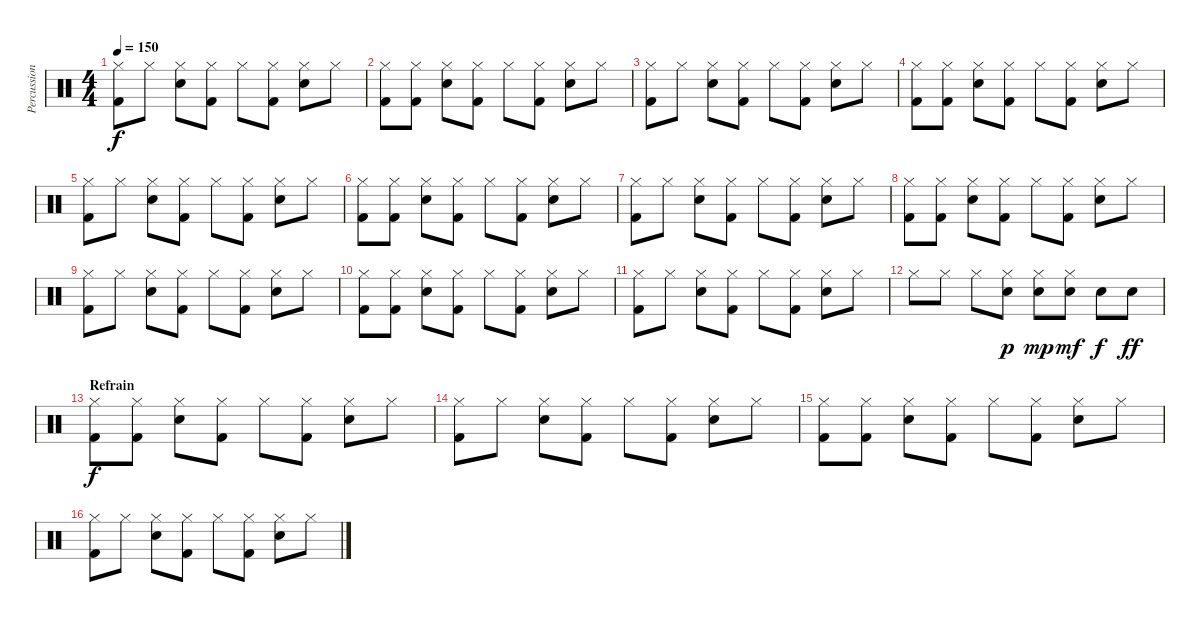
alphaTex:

\track ("Percussion" "Percussion") {instrument percussion}
\staff {score}
\articulation defaults
\ts (4 4)
\tempo 150
\clef neutral
\ks c
("Hi-Hat (closed)" "Kick (hit) 2").8{dy f} "Hi-Hat (closed)".8 ("Hi-Hat (closed)" "Electric Snare (hit)").8 ("Hi-Hat (closed)" "Kick (hit) 2").8 "Hi-Hat (closed)".8 ("Hi-Hat (closed)" "Kick (hit) 2").8 ("Hi-Hat (closed)" "Electric Snare (hit)").8 "Hi-Hat (closed)".8 |
("Hi-Hat (closed)" "Kick (hit) 2").8 ("Hi-Hat (closed)" "Kick (hit) 2").8 ("Hi-Hat (closed)" "Electric Snare (hit)").8 ("Hi-Hat (closed)" "Kick (hit) 2").8 "Hi-Hat (closed)".8 ("Hi-Hat (closed)" "Kick (hit) 2").8 ("Hi-Hat (closed)" "Electric Snare (hit)").8 "Hi-Hat (closed)".8 |
("Hi-Hat (closed)" "Kick (hit) 2").8 "Hi-Hat (closed)".8 ("Hi-Hat (closed)" "Electric Snare (hit)").8 ("Hi-Hat (closed)" "Kick (hit) 2").8 "Hi-Hat (closed)".8 ("Hi-Hat (closed)" "Kick (hit) 2").8 ("Hi-Hat (closed)" "Electric Snare (hit)").8 "Hi-Hat (closed)".8 |
("Hi-Hat (closed)" "Kick (hit) 2").8 ("Hi-Hat (closed)" "Kick (hit) 2").8 ("Hi-Hat (closed)" "Electric Snare (hit)").8 ("Hi-Hat (closed)" "Kick (hit) 2").8 "Hi-Hat (closed)".8 ("Hi-Hat (closed)" "Kick (hit) 2").8 ("Hi-Hat (closed)" "Electric Snare (hit)").8 "Hi-Hat (closed)".8 |
("Hi-Hat (closed)" "Kick (hit) 2").8 "Hi-Hat (closed)".8 ("Hi-Hat (closed)" "Electric Snare (hit)").8 ("Hi-Hat (closed)" "Kick (hit) 2").8 "Hi-Hat (closed)".8 ("Hi-Hat (closed)" "Kick (hit) 2").8 ("Hi-Hat (closed)" "Electric Snare (hit)").8 "Hi-Hat (closed)".8 |
("Hi-Hat (closed)" "Kick (hit) 2").8 ("Hi-Hat (closed)" "Kick (hit) 2").8 ("Hi-Hat (closed)" "Electric Snare (hit)").8 ("Hi-Hat (closed)" "Kick (hit) 2").8 "Hi-Hat (closed)".8 ("Hi-Hat (closed)" "Kick (hit) 2").8 ("Hi-Hat (closed)" "Electric Snare (hit)").8 "Hi-Hat (closed)".8 |
("Hi-Hat (closed)" "Kick (hit) 2").8 "Hi-Hat (closed)".8 ("Hi-Hat (closed)" "Electric Snare (hit)").8 ("Hi-Hat (closed)" "Kick (hit) 2").8 "Hi-Hat (closed)".8 ("Hi-Hat (closed)" "Kick (hit) 2").8 ("Hi-Hat (closed)" "Electric Snare (hit)").8 "Hi-Hat (closed)".8 |
("Hi-Hat (closed)" "Kick (hit) 2").8 ("Hi-Hat (closed)" "Kick (hit) 2").8 ("Hi-Hat (closed)" "Electric Snare (hit)").8 ("Hi-Hat (closed)" "Kick (hit) 2").8 "Hi-Hat (closed)".8 ("Hi-Hat (closed)" "Kick (hit) 2").8 ("Hi-Hat (closed)" "Electric Snare (hit)").8 "Hi-Hat (closed)".8 |
("Hi-Hat (closed)" "Kick (hit) 2").8 "Hi-Hat (closed)".8 ("Hi-Hat (closed)" "Electric Snare (hit)").8 ("Hi-Hat (closed)" "Kick (hit) 2").8 "Hi-Hat (closed)".8 ("Hi-Hat (closed)" "Kick (hit) 2").8 ("Hi-Hat (closed)" "Electric Snare (hit)").8 "Hi-Hat (closed)".8 |
("Hi-Hat (closed)" "Kick (hit) 2").8 ("Hi-Hat (closed)" "Kick (hit) 2").8 ("Hi-Hat (closed)" "Electric Snare (hit)").8 ("Hi-Hat (closed)" "Kick (hit) 2").8 "Hi-Hat (closed)".8 ("Hi-Hat (closed)" "Kick (hit) 2").8 ("Hi-Hat (closed)" "Electric Snare (hit)").8 "Hi-Hat (closed)".8 |
("Hi-Hat (closed)" "Kick (hit) 2").8 "Hi-Hat (closed)".8 ("Hi-Hat (closed)" "Electric Snare (hit)").8 ("Hi-Hat (closed)" "Kick (hit) 2").8 "Hi-Hat (closed)".8 ("Hi-Hat (closed)" "Kick (hit) 2").8 ("Hi-Hat (closed)" "Electric Snare (hit)").8 "Hi-Hat (closed)".8 |
"Hi-Hat (closed)".8 "Hi-Hat (closed)".8 "Hi-Hat (closed)".8 ("Hi-Hat (closed)" "Electric Snare (hit)").8{dy p} ("Hi-Hat (closed)" "Electric Snare (hit)").8{dy mp} ("Hi-Hat (closed)" "Electric Snare (hit)").8{dy mf} "Electric Snare (hit)".8{dy f} "Electric Snare (hit)".8{dy ff} |
\section ("" "Refrain")
("Hi-Hat (closed)" "Kick (hit) 2").8{dy f} ("Hi-Hat (closed)" "Kick (hit) 2").8 ("Hi-Hat (closed)" "Electric Snare (hit)").8 ("Hi-Hat (closed)" "Kick (hit) 2").8 "Hi-Hat (closed)".8 ("Hi-Hat (closed)" "Kick (hit) 2").8 ("Hi-Hat (closed)" "Electric Snare (hit)").8 "Hi-Hat (closed)".8 |
("Hi-Hat (closed)" "Kick (hit) 2").8 "Hi-Hat (closed)".8 ("Hi-Hat (closed)" "Electric Snare (hit)").8 ("Hi-Hat (closed)" "Kick (hit) 2").8 "Hi-Hat (closed)".8 ("Hi-Hat (closed)" "Kick (hit) 2").8 ("Hi-Hat (closed)" "Electric Snare (hit)").8 "Hi-Hat (closed)".8 |
("Hi-Hat (closed)" "Kick (hit) 2").8 ("Hi-Hat (closed)" "Kick (hit) 2").8 ("Hi-Hat (closed)" "Electric Snare (hit)").8 ("Hi-Hat (closed)" "Kick (hit) 2").8 "Hi-Hat (closed)".8 ("Hi-Hat (closed)" "Kick (hit) 2").8 ("Hi-Hat (closed)" "Electric Snare (hit)").8 "Hi-Hat (closed)".8 |
("Hi-Hat (closed)" "Kick (hit) 2").8 "Hi-Hat (closed)".8 ("Hi-Hat (closed)" "Electric Snare (hit)").8 ("Hi-Hat (closed)" "Kick (hit) 2").8 "Hi-Hat (closed)".8 ("Hi-Hat (closed)" "Kick (hit) 2").8 ("Hi-Hat (closed)" "Electric Snare (hit)").8 "Hi-Hat (closed)".8
